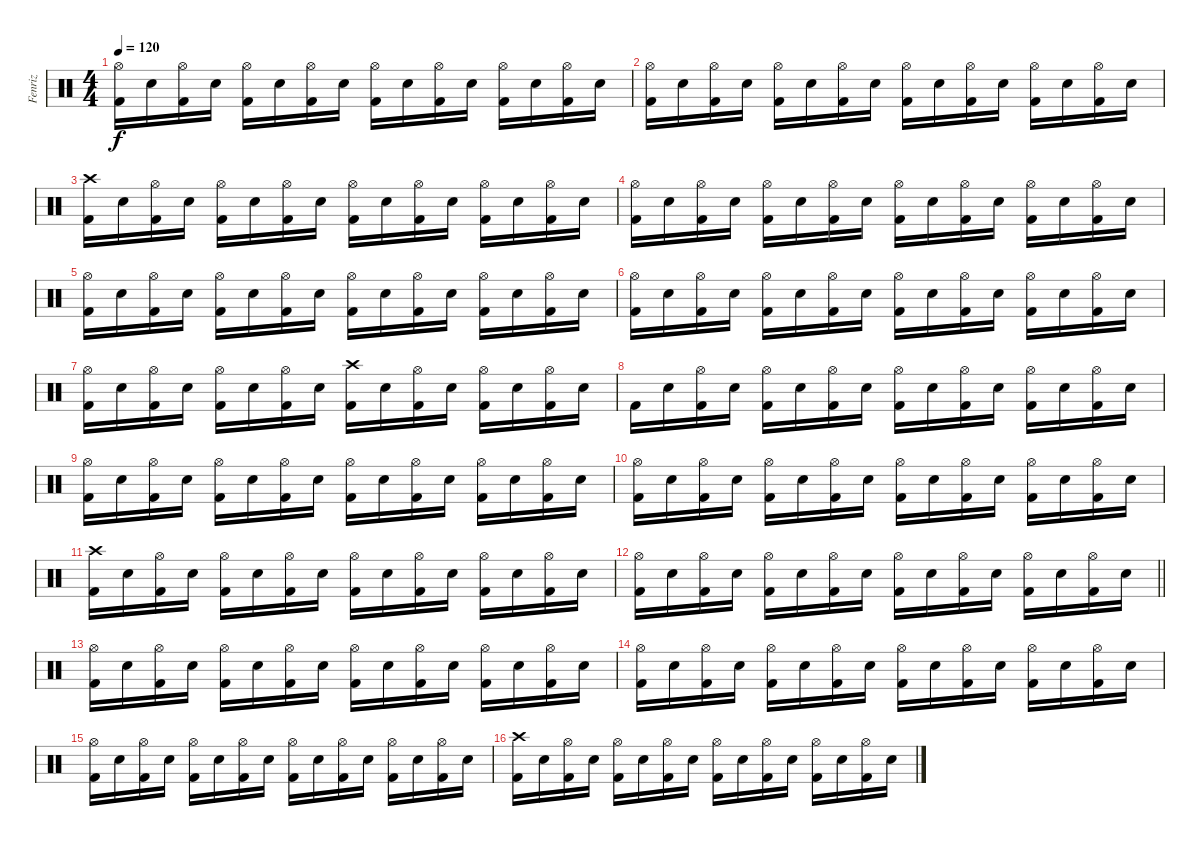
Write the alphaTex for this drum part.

\track ("Fenriz" "Fenriz") {instrument percussion}
\staff {score}
\articulation defaults
\ts (4 4)
\tempo 120
\clef neutral
\ks c
("Kick (hit) 2" "Hi-Hat (open)").16{dy f} "Electric Snare (hit)".16 ("Kick (hit) 2" "Hi-Hat (open)").16 "Electric Snare (hit)".16 ("Kick (hit) 2" "Hi-Hat (open)").16 "Electric Snare (hit)".16 ("Kick (hit) 2" "Hi-Hat (open)").16 "Electric Snare (hit)".16 ("Kick (hit) 2" "Hi-Hat (open)").16 "Electric Snare (hit)".16 ("Kick (hit) 2" "Hi-Hat (open)").16 "Electric Snare (hit)".16 ("Kick (hit) 2" "Hi-Hat (open)").16 "Electric Snare (hit)".16 ("Kick (hit) 2" "Hi-Hat (open)").16 "Electric Snare (hit)".16 |
("Kick (hit) 2" "Hi-Hat (open)").16 "Electric Snare (hit)".16 ("Kick (hit) 2" "Hi-Hat (open)").16 "Electric Snare (hit)".16 ("Kick (hit) 2" "Hi-Hat (open)").16 "Electric Snare (hit)".16 ("Kick (hit) 2" "Hi-Hat (open)").16 "Electric Snare (hit)".16 ("Kick (hit) 2" "Hi-Hat (open)").16 "Electric Snare (hit)".16 ("Kick (hit) 2" "Hi-Hat (open)").16 "Electric Snare (hit)".16 ("Kick (hit) 2" "Hi-Hat (open)").16 "Electric Snare (hit)".16 ("Kick (hit) 2" "Hi-Hat (open)").16 "Electric Snare (hit)".16 |
("Kick (hit) 2" "Crash high (hit)").16 "Electric Snare (hit)".16 ("Kick (hit) 2" "Hi-Hat (open)").16 "Electric Snare (hit)".16 ("Kick (hit) 2" "Hi-Hat (open)").16 "Electric Snare (hit)".16 ("Kick (hit) 2" "Hi-Hat (open)").16 "Electric Snare (hit)".16 ("Kick (hit) 2" "Hi-Hat (open)").16 "Electric Snare (hit)".16 ("Kick (hit) 2" "Hi-Hat (open)").16 "Electric Snare (hit)".16 ("Kick (hit) 2" "Hi-Hat (open)").16 "Electric Snare (hit)".16 ("Kick (hit) 2" "Hi-Hat (open)").16 "Electric Snare (hit)".16 |
("Kick (hit) 2" "Hi-Hat (open)").16 "Electric Snare (hit)".16 ("Kick (hit) 2" "Hi-Hat (open)").16 "Electric Snare (hit)".16 ("Kick (hit) 2" "Hi-Hat (open)").16 "Electric Snare (hit)".16 ("Kick (hit) 2" "Hi-Hat (open)").16 "Electric Snare (hit)".16 ("Kick (hit) 2" "Hi-Hat (open)").16 "Electric Snare (hit)".16 ("Kick (hit) 2" "Hi-Hat (open)").16 "Electric Snare (hit)".16 ("Kick (hit) 2" "Hi-Hat (open)").16 "Electric Snare (hit)".16 ("Kick (hit) 2" "Hi-Hat (open)").16 "Electric Snare (hit)".16 |
("Kick (hit) 2" "Hi-Hat (open)").16 "Electric Snare (hit)".16 ("Kick (hit) 2" "Hi-Hat (open)").16 "Electric Snare (hit)".16 ("Kick (hit) 2" "Hi-Hat (open)").16 "Electric Snare (hit)".16 ("Kick (hit) 2" "Hi-Hat (open)").16 "Electric Snare (hit)".16 ("Kick (hit) 2" "Hi-Hat (open)").16 "Electric Snare (hit)".16 ("Kick (hit) 2" "Hi-Hat (open)").16 "Electric Snare (hit)".16 ("Kick (hit) 2" "Hi-Hat (open)").16 "Electric Snare (hit)".16 ("Kick (hit) 2" "Hi-Hat (open)").16 "Electric Snare (hit)".16 |
("Kick (hit) 2" "Hi-Hat (open)").16 "Electric Snare (hit)".16 ("Kick (hit) 2" "Hi-Hat (open)").16 "Electric Snare (hit)".16 ("Kick (hit) 2" "Hi-Hat (open)").16 "Electric Snare (hit)".16 ("Kick (hit) 2" "Hi-Hat (open)").16 "Electric Snare (hit)".16 ("Kick (hit) 2" "Hi-Hat (open)").16 "Electric Snare (hit)".16 ("Kick (hit) 2" "Hi-Hat (open)").16 "Electric Snare (hit)".16 ("Kick (hit) 2" "Hi-Hat (open)").16 "Electric Snare (hit)".16 ("Kick (hit) 2" "Hi-Hat (open)").16 "Electric Snare (hit)".16 |
("Kick (hit) 2" "Hi-Hat (open)").16 "Electric Snare (hit)".16 ("Kick (hit) 2" "Hi-Hat (open)").16 "Electric Snare (hit)".16 ("Kick (hit) 2" "Hi-Hat (open)").16 "Electric Snare (hit)".16 ("Kick (hit) 2" "Hi-Hat (open)").16 "Electric Snare (hit)".16 ("Kick (hit) 2" "Crash high (hit)").16 "Electric Snare (hit)".16 ("Kick (hit) 2" "Hi-Hat (open)").16 "Electric Snare (hit)".16 ("Kick (hit) 2" "Hi-Hat (open)").16 "Electric Snare (hit)".16 ("Kick (hit) 2" "Hi-Hat (open)").16 "Electric Snare (hit)".16 |
"Kick (hit) 2".16 "Electric Snare (hit)".16 ("Kick (hit) 2" "Hi-Hat (open)").16 "Electric Snare (hit)".16 ("Kick (hit) 2" "Hi-Hat (open)").16 "Electric Snare (hit)".16 ("Kick (hit) 2" "Hi-Hat (open)").16 "Electric Snare (hit)".16 ("Kick (hit) 2" "Hi-Hat (open)").16 "Electric Snare (hit)".16 ("Kick (hit) 2" "Hi-Hat (open)").16 "Electric Snare (hit)".16 ("Kick (hit) 2" "Hi-Hat (open)").16 "Electric Snare (hit)".16 ("Kick (hit) 2" "Hi-Hat (open)").16 "Electric Snare (hit)".16 |
("Kick (hit) 2" "Hi-Hat (open)").16 "Electric Snare (hit)".16 ("Kick (hit) 2" "Hi-Hat (open)").16 "Electric Snare (hit)".16 ("Kick (hit) 2" "Hi-Hat (open)").16 "Electric Snare (hit)".16 ("Kick (hit) 2" "Hi-Hat (open)").16 "Electric Snare (hit)".16 ("Kick (hit) 2" "Hi-Hat (open)").16 "Electric Snare (hit)".16 ("Kick (hit) 2" "Hi-Hat (open)").16 "Electric Snare (hit)".16 ("Kick (hit) 2" "Hi-Hat (open)").16 "Electric Snare (hit)".16 ("Kick (hit) 2" "Hi-Hat (open)").16 "Electric Snare (hit)".16 |
("Kick (hit) 2" "Hi-Hat (open)").16 "Electric Snare (hit)".16 ("Kick (hit) 2" "Hi-Hat (open)").16 "Electric Snare (hit)".16 ("Kick (hit) 2" "Hi-Hat (open)").16 "Electric Snare (hit)".16 ("Kick (hit) 2" "Hi-Hat (open)").16 "Electric Snare (hit)".16 ("Kick (hit) 2" "Hi-Hat (open)").16 "Electric Snare (hit)".16 ("Kick (hit) 2" "Hi-Hat (open)").16 "Electric Snare (hit)".16 ("Kick (hit) 2" "Hi-Hat (open)").16 "Electric Snare (hit)".16 ("Kick (hit) 2" "Hi-Hat (open)").16 "Electric Snare (hit)".16 |
("Kick (hit) 2" "Crash high (hit)").16 "Electric Snare (hit)".16 ("Kick (hit) 2" "Hi-Hat (open)").16 "Electric Snare (hit)".16 ("Kick (hit) 2" "Hi-Hat (open)").16 "Electric Snare (hit)".16 ("Kick (hit) 2" "Hi-Hat (open)").16 "Electric Snare (hit)".16 ("Kick (hit) 2" "Hi-Hat (open)").16 "Electric Snare (hit)".16 ("Kick (hit) 2" "Hi-Hat (open)").16 "Electric Snare (hit)".16 ("Kick (hit) 2" "Hi-Hat (open)").16 "Electric Snare (hit)".16 ("Kick (hit) 2" "Hi-Hat (open)").16 "Electric Snare (hit)".16 |
\barLineRight lightlight
("Kick (hit) 2" "Hi-Hat (open)").16 "Electric Snare (hit)".16 ("Kick (hit) 2" "Hi-Hat (open)").16 "Electric Snare (hit)".16 ("Kick (hit) 2" "Hi-Hat (open)").16 "Electric Snare (hit)".16 ("Kick (hit) 2" "Hi-Hat (open)").16 "Electric Snare (hit)".16 ("Kick (hit) 2" "Hi-Hat (open)").16 "Electric Snare (hit)".16 ("Kick (hit) 2" "Hi-Hat (open)").16 "Electric Snare (hit)".16 ("Kick (hit) 2" "Hi-Hat (open)").16 "Electric Snare (hit)".16 ("Kick (hit) 2" "Hi-Hat (open)").16 "Electric Snare (hit)".16 |
("Kick (hit) 2" "Hi-Hat (open)").16 "Electric Snare (hit)".16 ("Kick (hit) 2" "Hi-Hat (open)").16 "Electric Snare (hit)".16 ("Kick (hit) 2" "Hi-Hat (open)").16 "Electric Snare (hit)".16 ("Kick (hit) 2" "Hi-Hat (open)").16 "Electric Snare (hit)".16 ("Kick (hit) 2" "Hi-Hat (open)").16 "Electric Snare (hit)".16 ("Kick (hit) 2" "Hi-Hat (open)").16 "Electric Snare (hit)".16 ("Kick (hit) 2" "Hi-Hat (open)").16 "Electric Snare (hit)".16 ("Kick (hit) 2" "Hi-Hat (open)").16 "Electric Snare (hit)".16 |
("Kick (hit) 2" "Hi-Hat (open)").16 "Electric Snare (hit)".16 ("Kick (hit) 2" "Hi-Hat (open)").16 "Electric Snare (hit)".16 ("Kick (hit) 2" "Hi-Hat (open)").16 "Electric Snare (hit)".16 ("Kick (hit) 2" "Hi-Hat (open)").16 "Electric Snare (hit)".16 ("Kick (hit) 2" "Hi-Hat (open)").16 "Electric Snare (hit)".16 ("Kick (hit) 2" "Hi-Hat (open)").16 "Electric Snare (hit)".16 ("Kick (hit) 2" "Hi-Hat (open)").16 "Electric Snare (hit)".16 ("Kick (hit) 2" "Hi-Hat (open)").16 "Electric Snare (hit)".16 |
("Kick (hit) 2" "Hi-Hat (open)").16 "Electric Snare (hit)".16 ("Kick (hit) 2" "Hi-Hat (open)").16 "Electric Snare (hit)".16 ("Kick (hit) 2" "Hi-Hat (open)").16 "Electric Snare (hit)".16 ("Kick (hit) 2" "Hi-Hat (open)").16 "Electric Snare (hit)".16 ("Kick (hit) 2" "Hi-Hat (open)").16 "Electric Snare (hit)".16 ("Kick (hit) 2" "Hi-Hat (open)").16 "Electric Snare (hit)".16 ("Kick (hit) 2" "Hi-Hat (open)").16 "Electric Snare (hit)".16 ("Kick (hit) 2" "Hi-Hat (open)").16 "Electric Snare (hit)".16 |
("Kick (hit) 2" "Crash high (hit)").16 "Electric Snare (hit)".16 ("Kick (hit) 2" "Hi-Hat (open)").16 "Electric Snare (hit)".16 ("Kick (hit) 2" "Hi-Hat (open)").16 "Electric Snare (hit)".16 ("Kick (hit) 2" "Hi-Hat (open)").16 "Electric Snare (hit)".16 ("Kick (hit) 2" "Hi-Hat (open)").16 "Electric Snare (hit)".16 ("Kick (hit) 2" "Hi-Hat (open)").16 "Electric Snare (hit)".16 ("Kick (hit) 2" "Hi-Hat (open)").16 "Electric Snare (hit)".16 ("Kick (hit) 2" "Hi-Hat (open)").16 "Electric Snare (hit)".16
